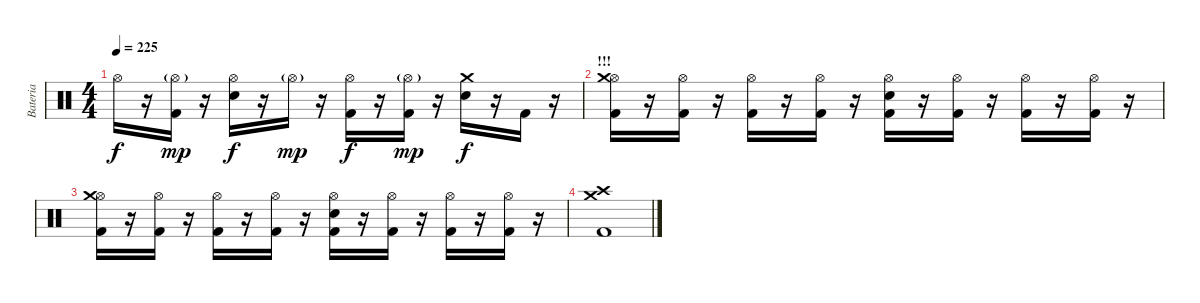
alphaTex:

\track ("Bateria" "Bateria") {instrument percussion}
\staff {score}
\articulation defaults
\ts (4 4)
\tempo 225
\clef neutral
\ks c "Hi-Hat (open)".16{dy f}
r.16 ("Hi-Hat (open)"{g} "Kick (hit) 2").16{dy mp} r.16 ("Hi-Hat (open)" "Electric Snare (hit)").16{dy f} r.16 "Hi-Hat (open)"{g}.16{dy mp} r.16 ("Hi-Hat (open)" "Kick (hit) 2").16{dy f} r.16 ("Hi-Hat (open)"{g} "Kick (hit) 2").16{dy mp} r.16 ("Crash medium (hit)" "Electric Snare (hit)").16{dy f} r.16 "Kick (hit) 2".16 r.16 |
\section ("" "!!!")
("Hi-Hat (open)" "Crash medium (hit)" "Kick (hit) 2").16 r.16 ("Hi-Hat (open)" "Kick (hit) 2").16 r.16 ("Hi-Hat (open)" "Kick (hit) 2").16 r.16 ("Hi-Hat (open)" "Kick (hit) 2").16 r.16 ("Hi-Hat (open)" "Electric Snare (hit)" "Kick (hit) 2").16 r.16 ("Hi-Hat (open)" "Kick (hit) 2").16 r.16 ("Hi-Hat (open)" "Kick (hit) 2").16 r.16 ("Hi-Hat (open)" "Kick (hit) 2").16 r.16 |
("Hi-Hat (open)" "Crash medium (hit)" "Kick (hit) 2").16 r.16 ("Hi-Hat (open)" "Kick (hit) 2").16 r.16 ("Hi-Hat (open)" "Kick (hit) 2").16 r.16 ("Hi-Hat (open)" "Kick (hit) 2").16 r.16 ("Hi-Hat (open)" "Electric Snare (hit)" "Kick (hit) 2").16 r.16 ("Hi-Hat (open)" "Kick (hit) 2").16 r.16 ("Hi-Hat (open)" "Kick (hit) 2").16 r.16 ("Hi-Hat (open)" "Kick (hit) 2").16 r.16 |
("Crash medium (hit)" "Crash high (hit)" "Kick (hit) 2").1
